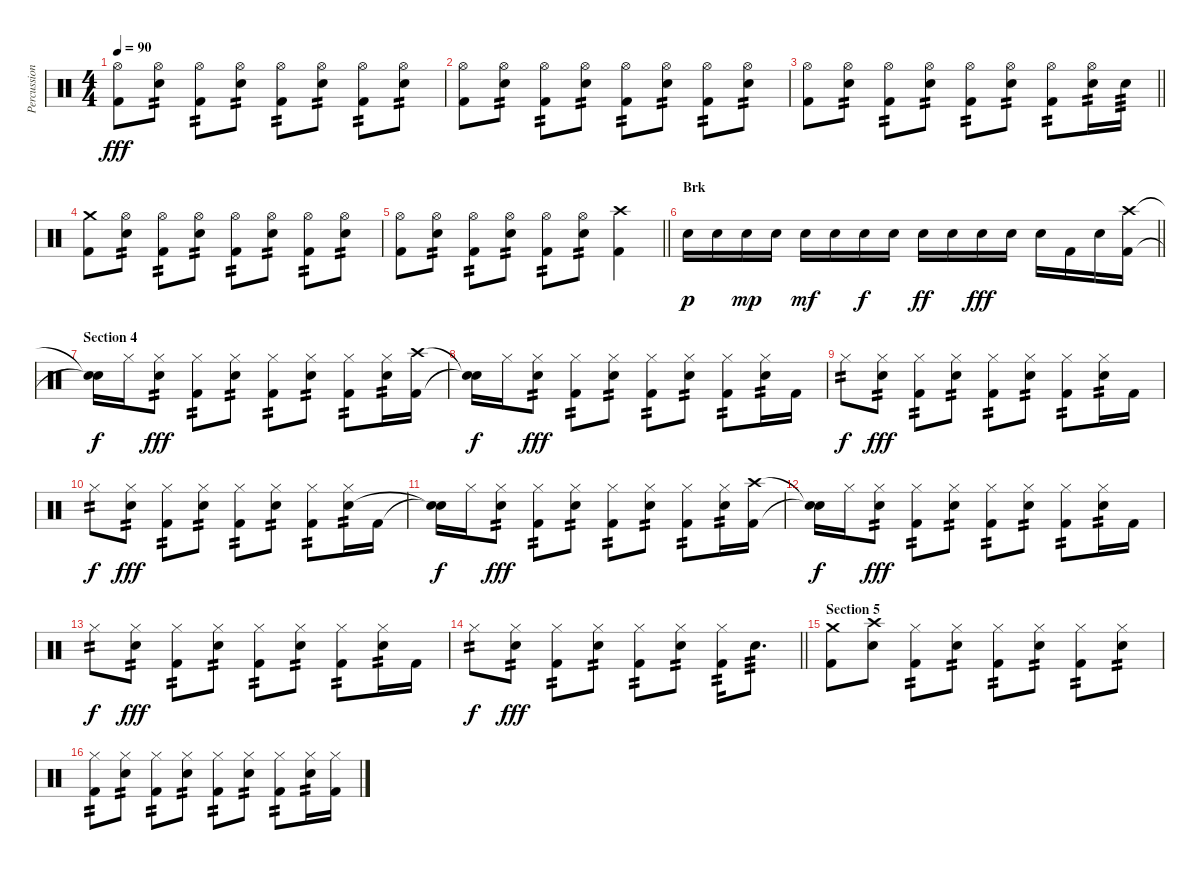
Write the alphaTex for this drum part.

\track ("Percussion" "Percussion") {instrument percussion}
\staff {score}
\articulation defaults
\ts (4 4)
\tempo 90
\clef neutral
\ks c
("Hi-Hat (open)" "Kick (hit) 2").8{dy fff} ("Hi-Hat (open)" "Electric Snare (hit)").8{tp 2} ("Hi-Hat (open)" "Kick (hit) 2").8{tp 2} ("Hi-Hat (open)" "Electric Snare (hit)").8{tp 2} ("Hi-Hat (open)" "Kick (hit) 2").8{tp 2} ("Hi-Hat (open)" "Electric Snare (hit)").8{tp 2} ("Hi-Hat (open)" "Kick (hit) 2").8{tp 2} ("Hi-Hat (open)" "Electric Snare (hit)").8{tp 2} |
("Hi-Hat (open)" "Kick (hit) 2").8 ("Hi-Hat (open)" "Electric Snare (hit)").8{tp 2} ("Hi-Hat (open)" "Kick (hit) 2").8{tp 2} ("Hi-Hat (open)" "Electric Snare (hit)").8{tp 2} ("Hi-Hat (open)" "Kick (hit) 2").8{tp 2} ("Hi-Hat (open)" "Electric Snare (hit)").8{tp 2} ("Hi-Hat (open)" "Kick (hit) 2").8{tp 2} ("Hi-Hat (open)" "Electric Snare (hit)").8{tp 2} |
\barLineRight lightlight
("Hi-Hat (open)" "Kick (hit) 2").8 ("Hi-Hat (open)" "Electric Snare (hit)").8{tp 2} ("Hi-Hat (open)" "Kick (hit) 2").8{tp 2} ("Hi-Hat (open)" "Electric Snare (hit)").8{tp 2} ("Hi-Hat (open)" "Kick (hit) 2").8{tp 2} ("Hi-Hat (open)" "Electric Snare (hit)").8{tp 2} ("Hi-Hat (open)" "Kick (hit) 2").8{tp 2} ("Hi-Hat (open)" "Electric Snare (hit)").16{tp 2} "Electric Snare (hit)".16{tp 3} |
("Crash medium (hit)" "Kick (hit) 2").8 ("Hi-Hat (open)" "Electric Snare (hit)").8{tp 2} ("Hi-Hat (open)" "Kick (hit) 2").8{tp 2} ("Hi-Hat (open)" "Electric Snare (hit)").8{tp 2} ("Hi-Hat (open)" "Kick (hit) 2").8{tp 2} ("Hi-Hat (open)" "Electric Snare (hit)").8{tp 2} ("Hi-Hat (open)" "Kick (hit) 2").8{tp 2} ("Hi-Hat (open)" "Electric Snare (hit)").8{tp 2} |
\barLineRight lightlight
("Hi-Hat (open)" "Kick (hit) 2").8 ("Hi-Hat (open)" "Electric Snare (hit)").8{tp 2} ("Hi-Hat (open)" "Kick (hit) 2").8{tp 2} ("Hi-Hat (open)" "Electric Snare (hit)").8{tp 2} ("Hi-Hat (open)" "Kick (hit) 2").8{tp 2} ("Hi-Hat (open)" "Electric Snare (hit)").8{tp 2} ("Crash high (hit)" "Kick (hit) 2").4 |
\section ("" "Brk")
\barLineRight lightlight "Electric Snare (hit)".16{dy p} "Electric Snare (hit)".16 "Electric Snare (hit)".16{dy mp} "Electric Snare (hit)".16 "Electric Snare (hit)".16{dy mf} "Electric Snare (hit)".16 "Electric Snare (hit)".16{dy f} "Electric Snare (hit)".16 "Electric Snare (hit)".16{dy ff} "Electric Snare (hit)".16 "Electric Snare (hit)".16{dy fff} "Electric Snare (hit)".16 "Electric Snare (hit)".16 "Kick (hit) 2".16 "Electric Snare (hit)".16
("Crash high (hit)" "Kick (hit) 2").16 |
\section ("" "Section 4")
("Snare (hit)"{t} "Snare (hit)"{t}).16{dy f} "Hi-Hat (closed)".16 ("Hi-Hat (closed)" "Electric Snare (hit)").8{tp 2 dy fff} ("Hi-Hat (closed)" "Kick (hit) 2").8{tp 2} ("Hi-Hat (closed)" "Electric Snare (hit)").8{tp 2} ("Hi-Hat (closed)" "Kick (hit) 2").8{tp 2} ("Hi-Hat (closed)" "Electric Snare (hit)").8{tp 2} ("Hi-Hat (closed)" "Kick (hit) 2").8{tp 2} ("Hi-Hat (closed)" "Electric Snare (hit)").16{tp 2} ("Crash high (hit)" "Kick (hit) 2").16 |
("Snare (hit)"{t} "Snare (hit)"{t}).16{dy f} "Hi-Hat (closed)".16 ("Hi-Hat (closed)" "Electric Snare (hit)").8{tp 2 dy fff} ("Hi-Hat (closed)" "Kick (hit) 2").8{tp 2} ("Hi-Hat (closed)" "Electric Snare (hit)").8{tp 2} ("Hi-Hat (closed)" "Kick (hit) 2").8{tp 2} ("Hi-Hat (closed)" "Electric Snare (hit)").8{tp 2} ("Hi-Hat (closed)" "Kick (hit) 2").8{tp 2} ("Hi-Hat (closed)" "Electric Snare (hit)").16{tp 2} "Kick (hit) 2".16 |
"Hi-Hat (closed)".8{tp 2 dy f} ("Hi-Hat (closed)" "Electric Snare (hit)").8{tp 2 dy fff} ("Hi-Hat (closed)" "Kick (hit) 2").8{tp 2} ("Hi-Hat (closed)" "Electric Snare (hit)").8{tp 2} ("Hi-Hat (closed)" "Kick (hit) 2").8{tp 2} ("Hi-Hat (closed)" "Electric Snare (hit)").8{tp 2} ("Hi-Hat (closed)" "Kick (hit) 2").8{tp 2} ("Hi-Hat (closed)" "Electric Snare (hit)").16{tp 2} "Kick (hit) 2".16 |
"Hi-Hat (closed)".8{tp 2 dy f} ("Hi-Hat (closed)" "Electric Snare (hit)").8{tp 2 dy fff} ("Hi-Hat (closed)" "Kick (hit) 2").8{tp 2} ("Hi-Hat (closed)" "Electric Snare (hit)").8{tp 2} ("Hi-Hat (closed)" "Kick (hit) 2").8{tp 2} ("Hi-Hat (closed)" "Electric Snare (hit)").8{tp 2} ("Hi-Hat (closed)" "Kick (hit) 2").8{tp 2} ("Hi-Hat (closed)" "Electric Snare (hit)").16{tp 2} "Kick (hit) 2".16 |
("Snare (hit)"{t} "Snare (hit)"{t}).16{dy f} "Hi-Hat (closed)".16 ("Hi-Hat (closed)" "Electric Snare (hit)").8{tp 2 dy fff} ("Hi-Hat (closed)" "Kick (hit) 2").8{tp 2} ("Hi-Hat (closed)" "Electric Snare (hit)").8{tp 2} ("Hi-Hat (closed)" "Kick (hit) 2").8{tp 2} ("Hi-Hat (closed)" "Electric Snare (hit)").8{tp 2} ("Hi-Hat (closed)" "Kick (hit) 2").8{tp 2} ("Hi-Hat (closed)" "Electric Snare (hit)").16{tp 2} ("Crash high (hit)" "Kick (hit) 2").16 |
("Snare (hit)"{t} "Snare (hit)"{t}).16{dy f} "Hi-Hat (closed)".16 ("Hi-Hat (closed)" "Electric Snare (hit)").8{tp 2 dy fff} ("Hi-Hat (closed)" "Kick (hit) 2").8{tp 2} ("Hi-Hat (closed)" "Electric Snare (hit)").8{tp 2} ("Hi-Hat (closed)" "Kick (hit) 2").8{tp 2} ("Hi-Hat (closed)" "Electric Snare (hit)").8{tp 2} ("Hi-Hat (closed)" "Kick (hit) 2").8{tp 2} ("Hi-Hat (closed)" "Electric Snare (hit)").16{tp 2} "Kick (hit) 2".16 |
"Hi-Hat (closed)".8{tp 2 dy f} ("Hi-Hat (closed)" "Electric Snare (hit)").8{tp 2 dy fff} ("Hi-Hat (closed)" "Kick (hit) 2").8{tp 2} ("Hi-Hat (closed)" "Electric Snare (hit)").8{tp 2} ("Hi-Hat (closed)" "Kick (hit) 2").8{tp 2} ("Hi-Hat (closed)" "Electric Snare (hit)").8{tp 2} ("Hi-Hat (closed)" "Kick (hit) 2").8{tp 2} ("Hi-Hat (closed)" "Electric Snare (hit)").16{tp 2} "Kick (hit) 2".16 |
\barLineRight lightlight "Hi-Hat (closed)".8{tp 2 dy f}
("Hi-Hat (closed)" "Electric Snare (hit)").8{tp 2 dy fff} ("Hi-Hat (closed)" "Kick (hit) 2").8{tp 2} ("Hi-Hat (closed)" "Electric Snare (hit)").8{tp 2} ("Hi-Hat (closed)" "Kick (hit) 2").8{tp 2} ("Hi-Hat (closed)" "Electric Snare (hit)").8{tp 2} ("Hi-Hat (closed)" "Kick (hit) 2").16{tp 2} "Electric Snare (hit)".8{d tp 3} |
\section ("" "Section 5")
("Crash medium (hit)" "Kick (hit) 2").8 ("Crash high (hit)" "Electric Snare (hit)").8 ("Hi-Hat (closed)" "Kick (hit) 2").8{tp 2} ("Hi-Hat (closed)" "Electric Snare (hit)").8{tp 2} ("Hi-Hat (closed)" "Kick (hit) 2").8{tp 2} ("Hi-Hat (closed)" "Electric Snare (hit)").8{tp 2} ("Hi-Hat (closed)" "Kick (hit) 2").8{tp 2} ("Hi-Hat (closed)" "Electric Snare (hit)").8{tp 2} |
("Hi-Hat (closed)" "Kick (hit) 2").8{tp 2} ("Hi-Hat (closed)" "Electric Snare (hit)").8{tp 2} ("Hi-Hat (closed)" "Kick (hit) 2").8{tp 2} ("Hi-Hat (closed)" "Electric Snare (hit)").8{tp 2} ("Hi-Hat (closed)" "Kick (hit) 2").8{tp 2} ("Hi-Hat (closed)" "Electric Snare (hit)").8{tp 2} ("Hi-Hat (closed)" "Kick (hit) 2").8{tp 2} ("Hi-Hat (closed)" "Electric Snare (hit)").16{tp 2} ("Hi-Hat (closed)" "Kick (hit) 2").16
